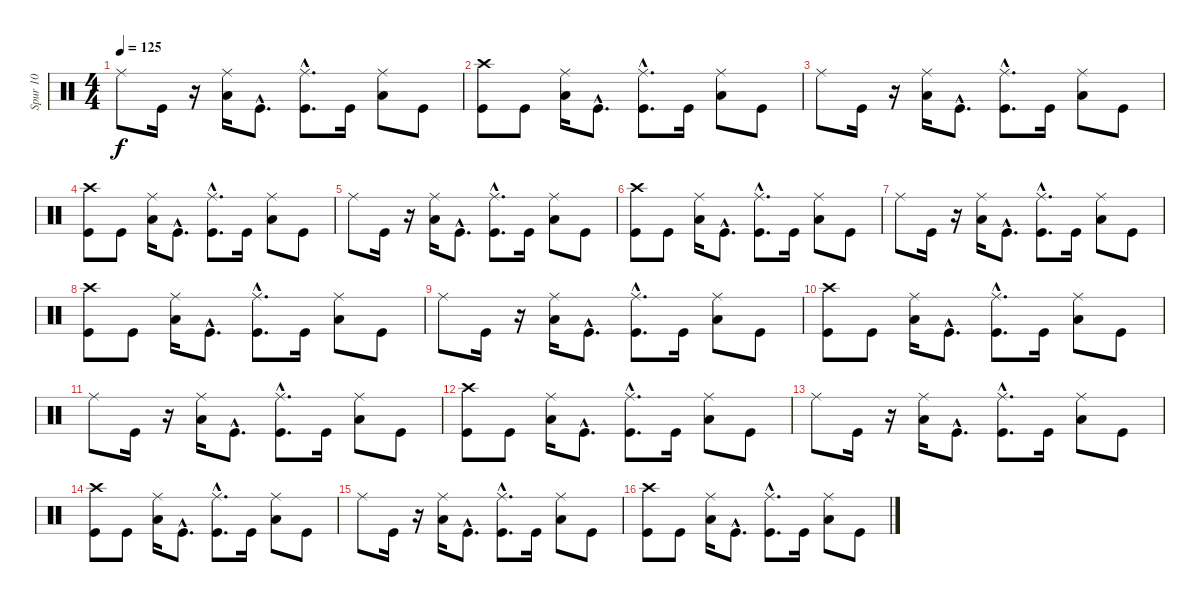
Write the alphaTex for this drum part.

\track ("Spur 10" "Spur 10") {instrument percussion}
\staff {score}
\articulation defaults
\ts (4 4)
\tempo 125
\clef neutral
\ks c "Ride (middle)".8{dy f} "Kick (hit)".16
r.16 ("Ride (middle)" "Low Tom (hit)").16 "Kick (hit)"{hac}.8{d} ("Ride (middle)" "Kick (hit)"{hac}).8{d} "Kick (hit)".16 ("Low Tom (hit)" "Ride (middle)").8 "Kick (hit)".8 |
("Kick (hit)" "Crash high (hit)").8 "Kick (hit)".8 ("Ride (middle)" "Low Tom (hit)").16 "Kick (hit)"{hac}.8{d} ("Kick (hit)"{hac} "Ride (middle)").8{d} "Kick (hit)".16 ("Low Tom (hit)" "Ride (middle)").8 "Kick (hit)".8 |
"Ride (middle)".8 "Kick (hit)".16 r.16 ("Ride (middle)" "Low Tom (hit)").16 "Kick (hit)"{hac}.8{d} ("Kick (hit)"{hac} "Ride (middle)").8{d} "Kick (hit)".16 ("Ride (middle)" "Low Tom (hit)").8 "Kick (hit)".8 |
("Kick (hit)" "Crash high (hit)").8 "Kick (hit)".8 ("Ride (middle)" "Low Tom (hit)").16 "Kick (hit)"{hac}.8{d} ("Ride (middle)" "Kick (hit)"{hac}).8{d} "Kick (hit)".16 ("Ride (middle)" "Low Tom (hit)").8 "Kick (hit)".8 |
"Ride (middle)".8 "Kick (hit)".16 r.16 ("Ride (middle)" "Low Tom (hit)").16 "Kick (hit)"{hac}.8{d} ("Kick (hit)"{hac} "Ride (middle)").8{d} "Kick (hit)".16 ("Low Tom (hit)" "Ride (middle)").8 "Kick (hit)".8 |
("Crash high (hit)" "Kick (hit)").8 "Kick (hit)".8 ("Low Tom (hit)" "Ride (middle)").16 "Kick (hit)"{hac}.8{d} ("Ride (middle)" "Kick (hit)"{hac}).8{d} "Kick (hit)".16 ("Ride (middle)" "Low Tom (hit)").8 "Kick (hit)".8 |
"Ride (middle)".8 "Kick (hit)".16 r.16 ("Low Tom (hit)" "Ride (middle)").16 "Kick (hit)"{hac}.8{d} ("Kick (hit)"{hac} "Ride (middle)").8{d} "Kick (hit)".16 ("Ride (middle)" "Low Tom (hit)").8 "Kick (hit)".8 |
("Kick (hit)" "Crash high (hit)").8 "Kick (hit)".8 ("Low Tom (hit)" "Ride (middle)").16 "Kick (hit)"{hac}.8{d} ("Ride (middle)" "Kick (hit)"{hac}).8{d} "Kick (hit)".16 ("Ride (middle)" "Low Tom (hit)").8 "Kick (hit)".8 |
"Ride (middle)".8 "Kick (hit)".16 r.16 ("Low Tom (hit)" "Ride (middle)").16 "Kick (hit)"{hac}.8{d} ("Kick (hit)"{hac} "Ride (middle)").8{d} "Kick (hit)".16 ("Low Tom (hit)" "Ride (middle)").8 "Kick (hit)".8 |
("Crash high (hit)" "Kick (hit)").8 "Kick (hit)".8 ("Ride (middle)" "Low Tom (hit)").16 "Kick (hit)"{hac}.8{d} ("Kick (hit)"{hac} "Ride (middle)").8{d} "Kick (hit)".16 ("Low Tom (hit)" "Ride (middle)").8 "Kick (hit)".8 |
"Ride (middle)".8 "Kick (hit)".16 r.16 ("Ride (middle)" "Low Tom (hit)").16 "Kick (hit)"{hac}.8{d} ("Ride (middle)" "Kick (hit)"{hac}).8{d} "Kick (hit)".16 ("Ride (middle)" "Low Tom (hit)").8 "Kick (hit)".8 |
("Crash high (hit)" "Kick (hit)").8 "Kick (hit)".8 ("Low Tom (hit)" "Ride (middle)").16 "Kick (hit)"{hac}.8{d} ("Ride (middle)" "Kick (hit)"{hac}).8{d} "Kick (hit)".16 ("Low Tom (hit)" "Ride (middle)").8 "Kick (hit)".8 |
"Ride (middle)".8 "Kick (hit)".16 r.16 ("Low Tom (hit)" "Ride (middle)").16 "Kick (hit)"{hac}.8{d} ("Kick (hit)"{hac} "Ride (middle)").8{d} "Kick (hit)".16 ("Low Tom (hit)" "Ride (middle)").8 "Kick (hit)".8 |
("Kick (hit)" "Crash high (hit)").8 "Kick (hit)".8 ("Ride (middle)" "Low Tom (hit)").16 "Kick (hit)"{hac}.8{d} ("Kick (hit)"{hac} "Ride (middle)").8{d} "Kick (hit)".16 ("Ride (middle)" "Low Tom (hit)").8 "Kick (hit)".8 |
"Ride (middle)".8 "Kick (hit)".16 r.16 ("Low Tom (hit)" "Ride (middle)").16 "Kick (hit)"{hac}.8{d} ("Kick (hit)"{hac} "Ride (middle)").8{d} "Kick (hit)".16 ("Low Tom (hit)" "Ride (middle)").8 "Kick (hit)".8 |
("Kick (hit)" "Crash high (hit)").8 "Kick (hit)".8 ("Low Tom (hit)" "Ride (middle)").16 "Kick (hit)"{hac}.8{d} ("Kick (hit)"{hac} "Ride (middle)").8{d} "Kick (hit)".16 ("Ride (middle)" "Low Tom (hit)").8 "Kick (hit)".8
